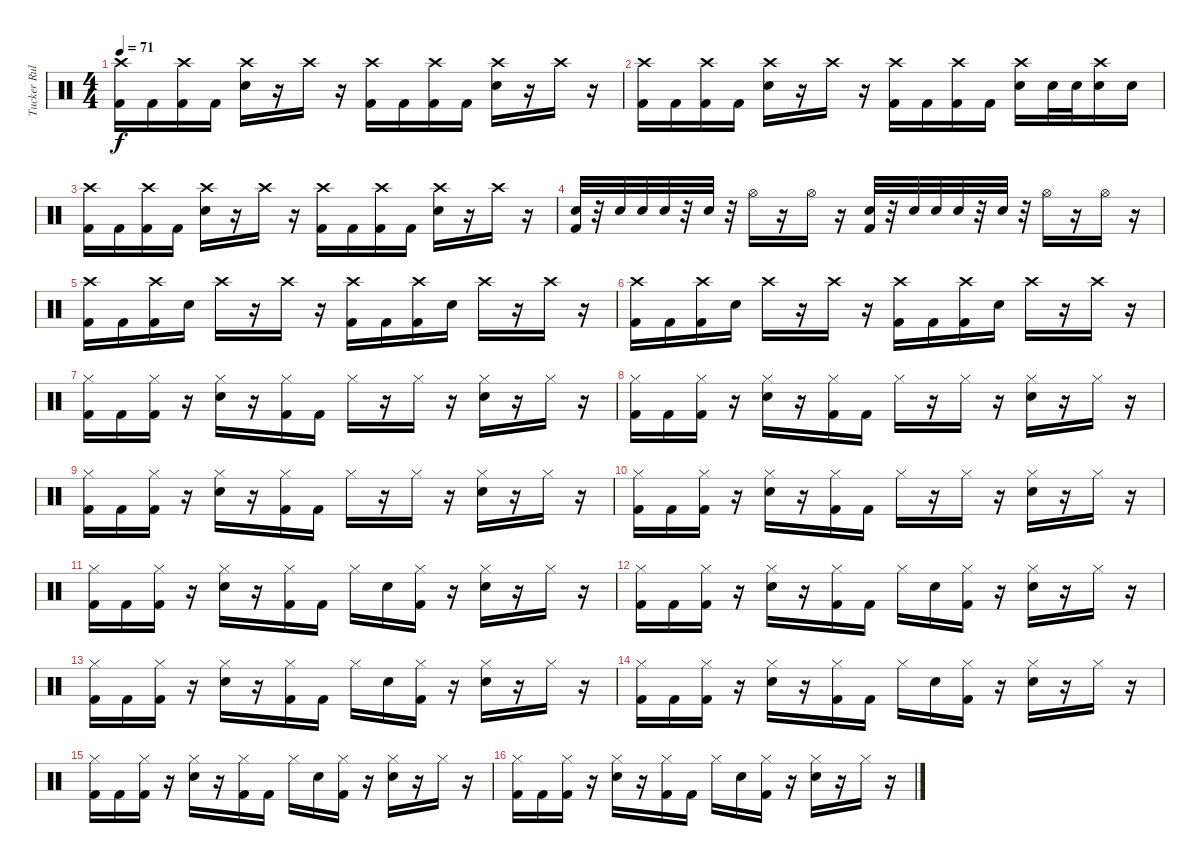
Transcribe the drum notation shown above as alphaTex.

\track ("Tucker Rule (Drums)" "Tucker Rul") {instrument percussion}
\staff {score}
\articulation defaults
\ts (4 4)
\tempo 71
\clef neutral
\ks c
("Crash high (hit)" "Kick (hit) 2").16{dy f} "Kick (hit) 2".16 ("Crash high (hit)" "Kick (hit) 2").16 "Kick (hit) 2".16 ("Crash high (hit)" "Electric Snare (hit)").16 r.16 "Crash high (hit)".16 r.16 ("Crash high (hit)" "Kick (hit) 2").16 "Kick (hit) 2".16 ("Crash high (hit)" "Kick (hit) 2").16 "Kick (hit) 2".16 ("Crash high (hit)" "Electric Snare (hit)").16 r.16 "Crash high (hit)".16 r.16 |
("Crash high (hit)" "Kick (hit) 2").16 "Kick (hit) 2".16 ("Crash high (hit)" "Kick (hit) 2").16 "Kick (hit) 2".16 ("Crash high (hit)" "Electric Snare (hit)").16 r.16 "Crash high (hit)".16 r.16 ("Crash high (hit)" "Kick (hit) 2").16 "Kick (hit) 2".16 ("Crash high (hit)" "Kick (hit) 2").16 "Kick (hit) 2".16 ("Crash high (hit)" "Electric Snare (hit)").16 "Electric Snare (hit)".32 "Electric Snare (hit)".32 ("Crash high (hit)" "Electric Snare (hit)").16 "Electric Snare (hit)".16 |
("Crash high (hit)" "Kick (hit) 2").16 "Kick (hit) 2".16 ("Crash high (hit)" "Kick (hit) 2").16 "Kick (hit) 2".16 ("Crash high (hit)" "Electric Snare (hit)").16 r.16 "Crash high (hit)".16 r.16 ("Crash high (hit)" "Kick (hit) 2").16 "Kick (hit) 2".16 ("Crash high (hit)" "Kick (hit) 2").16 "Kick (hit) 2".16 ("Crash high (hit)" "Electric Snare (hit)").16 r.16 "Crash high (hit)".16 r.16 |
("Electric Snare (hit)" "Kick (hit) 2").32 r.32 "Electric Snare (hit)".32 "Electric Snare (hit)".32 "Electric Snare (hit)".32 r.32 "Electric Snare (hit)".32 r.32 "Hi-Hat (open)".16 r.16 "Hi-Hat (open)".16 r.16 ("Electric Snare (hit)" "Kick (hit) 2").32 r.32 "Electric Snare (hit)".32 "Electric Snare (hit)".32 "Electric Snare (hit)".32 r.32 "Electric Snare (hit)".32 r.32 "Hi-Hat (open)".16 r.16 "Hi-Hat (open)".16 r.16 |
("Crash high (hit)" "Kick (hit) 2").16 "Kick (hit) 2".16 ("Crash high (hit)" "Kick (hit) 2").16 "Electric Snare (hit)".16 "Crash high (hit)".16 r.16 "Crash high (hit)".16 r.16 ("Crash high (hit)" "Kick (hit) 2").16 "Kick (hit) 2".16 ("Crash high (hit)" "Kick (hit) 2").16 "Electric Snare (hit)".16 "Crash high (hit)".16 r.16 "Crash high (hit)".16 r.16 |
("Crash high (hit)" "Kick (hit) 2").16 "Kick (hit) 2".16 ("Crash high (hit)" "Kick (hit) 2").16 "Electric Snare (hit)".16 "Crash high (hit)".16 r.16 "Crash high (hit)".16 r.16 ("Crash high (hit)" "Kick (hit) 2").16 "Kick (hit) 2".16 ("Crash high (hit)" "Kick (hit) 2").16 "Electric Snare (hit)".16 "Crash high (hit)".16 r.16 "Crash high (hit)".16 r.16 |
("Hi-Hat (closed)" "Kick (hit) 2").16 "Kick (hit) 2".16 ("Hi-Hat (closed)" "Kick (hit) 2").16 r.16 ("Hi-Hat (closed)" "Electric Snare (hit)").16 r.16 ("Hi-Hat (closed)" "Kick (hit) 2").16 "Kick (hit) 2".16 "Hi-Hat (closed)".16 r.16 "Hi-Hat (closed)".16 r.16 ("Hi-Hat (closed)" "Electric Snare (hit)").16 r.16 "Hi-Hat (closed)".16 r.16 |
("Hi-Hat (closed)" "Kick (hit) 2").16 "Kick (hit) 2".16 ("Hi-Hat (closed)" "Kick (hit) 2").16 r.16 ("Hi-Hat (closed)" "Electric Snare (hit)").16 r.16 ("Hi-Hat (closed)" "Kick (hit) 2").16 "Kick (hit) 2".16 "Hi-Hat (closed)".16 r.16 "Hi-Hat (closed)".16 r.16 ("Hi-Hat (closed)" "Electric Snare (hit)").16 r.16 "Hi-Hat (closed)".16 r.16 |
("Hi-Hat (closed)" "Kick (hit) 2").16 "Kick (hit) 2".16 ("Hi-Hat (closed)" "Kick (hit) 2").16 r.16 ("Hi-Hat (closed)" "Electric Snare (hit)").16 r.16 ("Hi-Hat (closed)" "Kick (hit) 2").16 "Kick (hit) 2".16 "Hi-Hat (closed)".16 r.16 "Hi-Hat (closed)".16 r.16 ("Hi-Hat (closed)" "Electric Snare (hit)").16 r.16 "Hi-Hat (closed)".16 r.16 |
("Hi-Hat (closed)" "Kick (hit) 2").16 "Kick (hit) 2".16 ("Hi-Hat (closed)" "Kick (hit) 2").16 r.16 ("Hi-Hat (closed)" "Electric Snare (hit)").16 r.16 ("Hi-Hat (closed)" "Kick (hit) 2").16 "Kick (hit) 2".16 "Hi-Hat (closed)".16 r.16 "Hi-Hat (closed)".16 r.16 ("Hi-Hat (closed)" "Electric Snare (hit)").16 r.16 "Hi-Hat (closed)".16 r.16 |
("Hi-Hat (closed)" "Kick (hit) 2").16 "Kick (hit) 2".16 ("Hi-Hat (closed)" "Kick (hit) 2").16 r.16 ("Hi-Hat (closed)" "Electric Snare (hit)").16 r.16 ("Hi-Hat (closed)" "Kick (hit) 2").16 "Kick (hit) 2".16 "Hi-Hat (closed)".16 "Electric Snare (hit)".16 ("Hi-Hat (closed)" "Kick (hit) 2").16 r.16 ("Hi-Hat (closed)" "Electric Snare (hit)").16 r.16 "Hi-Hat (closed)".16 r.16 |
("Hi-Hat (closed)" "Kick (hit) 2").16 "Kick (hit) 2".16 ("Hi-Hat (closed)" "Kick (hit) 2").16 r.16 ("Hi-Hat (closed)" "Electric Snare (hit)").16 r.16 ("Hi-Hat (closed)" "Kick (hit) 2").16 "Kick (hit) 2".16 "Hi-Hat (closed)".16 "Electric Snare (hit)".16 ("Hi-Hat (closed)" "Kick (hit) 2").16 r.16 ("Hi-Hat (closed)" "Electric Snare (hit)").16 r.16 "Hi-Hat (closed)".16 r.16 |
("Hi-Hat (closed)" "Kick (hit) 2").16 "Kick (hit) 2".16 ("Hi-Hat (closed)" "Kick (hit) 2").16 r.16 ("Hi-Hat (closed)" "Electric Snare (hit)").16 r.16 ("Hi-Hat (closed)" "Kick (hit) 2").16 "Kick (hit) 2".16 "Hi-Hat (closed)".16 "Electric Snare (hit)".16 ("Hi-Hat (closed)" "Kick (hit) 2").16 r.16 ("Hi-Hat (closed)" "Electric Snare (hit)").16 r.16 "Hi-Hat (closed)".16 r.16 |
("Hi-Hat (closed)" "Kick (hit) 2").16 "Kick (hit) 2".16 ("Hi-Hat (closed)" "Kick (hit) 2").16 r.16 ("Hi-Hat (closed)" "Electric Snare (hit)").16 r.16 ("Hi-Hat (closed)" "Kick (hit) 2").16 "Kick (hit) 2".16 "Hi-Hat (closed)".16 "Electric Snare (hit)".16 ("Hi-Hat (closed)" "Kick (hit) 2").16 r.16 ("Hi-Hat (closed)" "Electric Snare (hit)").16 r.16 "Hi-Hat (closed)".16 r.16 |
("Hi-Hat (closed)" "Kick (hit) 2").16 "Kick (hit) 2".16 ("Hi-Hat (closed)" "Kick (hit) 2").16 r.16 ("Hi-Hat (closed)" "Electric Snare (hit)").16 r.16 ("Hi-Hat (closed)" "Kick (hit) 2").16 "Kick (hit) 2".16 "Hi-Hat (closed)".16 "Electric Snare (hit)".16 ("Hi-Hat (closed)" "Kick (hit) 2").16 r.16 ("Hi-Hat (closed)" "Electric Snare (hit)").16 r.16 "Hi-Hat (closed)".16 r.16 |
("Hi-Hat (closed)" "Kick (hit) 2").16 "Kick (hit) 2".16 ("Hi-Hat (closed)" "Kick (hit) 2").16 r.16 ("Hi-Hat (closed)" "Electric Snare (hit)").16 r.16 ("Hi-Hat (closed)" "Kick (hit) 2").16 "Kick (hit) 2".16 "Hi-Hat (closed)".16 "Electric Snare (hit)".16 ("Hi-Hat (closed)" "Kick (hit) 2").16 r.16 ("Hi-Hat (closed)" "Electric Snare (hit)").16 r.16 "Hi-Hat (closed)".16 r.16
